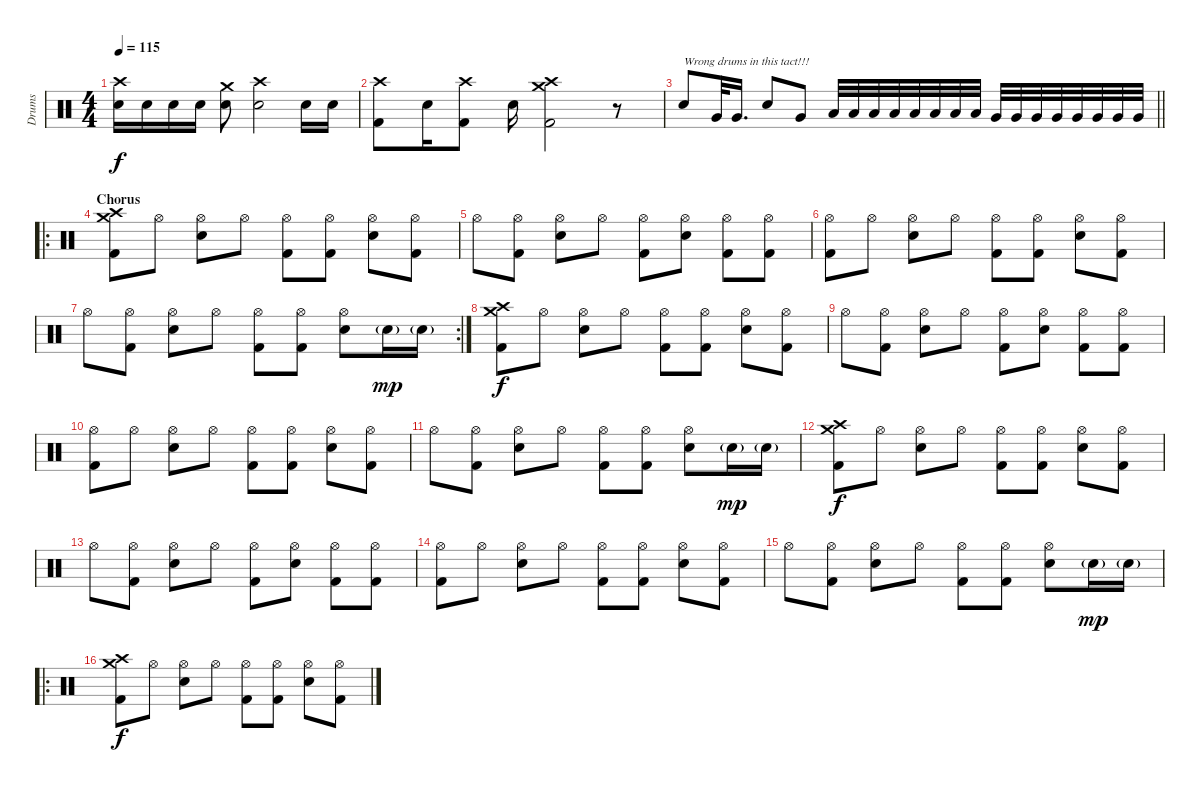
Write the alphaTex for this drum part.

\track ("Drums" "Drums") {instrument percussion}
\staff {score}
\articulation defaults
\ts (4 4)
\tempo 115
\clef neutral
\ks c
("Crash high (hit)" "Electric Snare (hit)").16{dy f} "Electric Snare (hit)".16 "Electric Snare (hit)".16 "Electric Snare (hit)".16 ("Crash medium (hit)" "Electric Snare (hit)").8 ("Crash high (hit)" "Electric Snare (hit)").2 "Electric Snare (hit)".16 "Electric Snare (hit)".16 |
("Crash high (hit)" "Kick (hit) 2").8 "Electric Snare (hit)".16 ("Crash high (hit)" "Kick (hit) 2").8 "Electric Snare (hit)".16 ("Crash high (hit)" "Crash medium (hit)" "Kick (hit) 2").2 r.8 |
\barLineRight lightlight "Electric Snare (hit)".8{txt "Wrong drums in this tact!!!"} "Very Low Tom (hit)".32 "Very Low Tom (hit)".16{d} "Electric Snare (hit)".8 "Very Low Tom (hit)".8 "Low Tom (hit)".32 "Low Tom (hit)".32 "Low Tom (hit)".32 "Low Tom (hit)".32 "Low Tom (hit)".32 "Low Tom (hit)".32 "Low Tom (hit)".32 "Low Tom (hit)".32 "Very Low Tom (hit)".32 "Very Low Tom (hit)".32 "Very Low Tom (hit)".32 "Very Low Tom (hit)".32 "Very Low Tom (hit)".32 "Very Low Tom (hit)".32 "Very Low Tom (hit)".32 "Very Low Tom (hit)".32
|
\ro
\section ("" "Chorus")
("Crash high (hit)" "Crash medium (hit)" "Kick (hit) 2").8 "Hi-Hat (open)".8 ("Hi-Hat (open)" "Electric Snare (hit)").8 "Hi-Hat (open)".8 ("Hi-Hat (open)" "Kick (hit) 2").8 ("Hi-Hat (open)" "Kick (hit) 2").8 ("Hi-Hat (open)" "Electric Snare (hit)").8 ("Hi-Hat (open)" "Kick (hit) 2").8 |
"Hi-Hat (open)".8 ("Hi-Hat (open)" "Kick (hit) 2").8 ("Hi-Hat (open)" "Electric Snare (hit)").8 "Hi-Hat (open)".8 ("Hi-Hat (open)" "Kick (hit) 2").8 ("Hi-Hat (open)" "Electric Snare (hit)").8 ("Hi-Hat (open)" "Kick (hit) 2").8 ("Hi-Hat (open)" "Kick (hit) 2").8 |
("Hi-Hat (open)" "Kick (hit) 2").8 "Hi-Hat (open)".8 ("Hi-Hat (open)" "Electric Snare (hit)").8 "Hi-Hat (open)".8 ("Hi-Hat (open)" "Kick (hit) 2").8 ("Hi-Hat (open)" "Kick (hit) 2").8 ("Hi-Hat (open)" "Electric Snare (hit)").8 ("Hi-Hat (open)" "Kick (hit) 2").8 |
\rc 2 "Hi-Hat (open)".8
("Hi-Hat (open)" "Kick (hit) 2").8 ("Hi-Hat (open)" "Electric Snare (hit)").8 "Hi-Hat (open)".8 ("Hi-Hat (open)" "Kick (hit) 2").8 ("Hi-Hat (open)" "Kick (hit) 2").8 ("Hi-Hat (open)" "Electric Snare (hit)").8 "Electric Snare (hit)"{g}.16{dy mp} "Electric Snare (hit)"{g}.16 |
("Crash high (hit)" "Crash medium (hit)" "Kick (hit) 2").8{dy f} "Hi-Hat (open)".8 ("Hi-Hat (open)" "Electric Snare (hit)").8 "Hi-Hat (open)".8 ("Hi-Hat (open)" "Kick (hit) 2").8 ("Hi-Hat (open)" "Kick (hit) 2").8 ("Hi-Hat (open)" "Electric Snare (hit)").8 ("Hi-Hat (open)" "Kick (hit) 2").8 |
"Hi-Hat (open)".8 ("Hi-Hat (open)" "Kick (hit) 2").8 ("Hi-Hat (open)" "Electric Snare (hit)").8 "Hi-Hat (open)".8 ("Hi-Hat (open)" "Kick (hit) 2").8 ("Hi-Hat (open)" "Electric Snare (hit)").8 ("Hi-Hat (open)" "Kick (hit) 2").8 ("Hi-Hat (open)" "Kick (hit) 2").8 |
("Hi-Hat (open)" "Kick (hit) 2").8 "Hi-Hat (open)".8 ("Hi-Hat (open)" "Electric Snare (hit)").8 "Hi-Hat (open)".8 ("Hi-Hat (open)" "Kick (hit) 2").8 ("Hi-Hat (open)" "Kick (hit) 2").8 ("Hi-Hat (open)" "Electric Snare (hit)").8 ("Hi-Hat (open)" "Kick (hit) 2").8 |
"Hi-Hat (open)".8 ("Hi-Hat (open)" "Kick (hit) 2").8 ("Hi-Hat (open)" "Electric Snare (hit)").8 "Hi-Hat (open)".8 ("Hi-Hat (open)" "Kick (hit) 2").8 ("Hi-Hat (open)" "Kick (hit) 2").8 ("Hi-Hat (open)" "Electric Snare (hit)").8 "Electric Snare (hit)"{g}.16{dy mp} "Electric Snare (hit)"{g}.16 |
("Crash high (hit)" "Crash medium (hit)" "Kick (hit) 2").8{dy f} "Hi-Hat (open)".8 ("Hi-Hat (open)" "Electric Snare (hit)").8 "Hi-Hat (open)".8 ("Hi-Hat (open)" "Kick (hit) 2").8 ("Hi-Hat (open)" "Kick (hit) 2").8 ("Hi-Hat (open)" "Electric Snare (hit)").8 ("Hi-Hat (open)" "Kick (hit) 2").8 |
"Hi-Hat (open)".8 ("Hi-Hat (open)" "Kick (hit) 2").8 ("Hi-Hat (open)" "Electric Snare (hit)").8 "Hi-Hat (open)".8 ("Hi-Hat (open)" "Kick (hit) 2").8 ("Hi-Hat (open)" "Electric Snare (hit)").8 ("Hi-Hat (open)" "Kick (hit) 2").8 ("Hi-Hat (open)" "Kick (hit) 2").8 |
("Hi-Hat (open)" "Kick (hit) 2").8 "Hi-Hat (open)".8 ("Hi-Hat (open)" "Electric Snare (hit)").8 "Hi-Hat (open)".8 ("Hi-Hat (open)" "Kick (hit) 2").8 ("Hi-Hat (open)" "Kick (hit) 2").8 ("Hi-Hat (open)" "Electric Snare (hit)").8 ("Hi-Hat (open)" "Kick (hit) 2").8 |
"Hi-Hat (open)".8 ("Hi-Hat (open)" "Kick (hit) 2").8 ("Hi-Hat (open)" "Electric Snare (hit)").8 "Hi-Hat (open)".8 ("Hi-Hat (open)" "Kick (hit) 2").8 ("Hi-Hat (open)" "Kick (hit) 2").8 ("Hi-Hat (open)" "Electric Snare (hit)").8 "Electric Snare (hit)"{g}.16{dy mp} "Electric Snare (hit)"{g}.16 |
\ro
("Crash high (hit)" "Crash medium (hit)" "Kick (hit) 2").8{dy f} "Hi-Hat (open)".8 ("Hi-Hat (open)" "Electric Snare (hit)").8 "Hi-Hat (open)".8 ("Hi-Hat (open)" "Kick (hit) 2").8 ("Hi-Hat (open)" "Kick (hit) 2").8 ("Hi-Hat (open)" "Electric Snare (hit)").8 ("Hi-Hat (open)" "Kick (hit) 2").8
